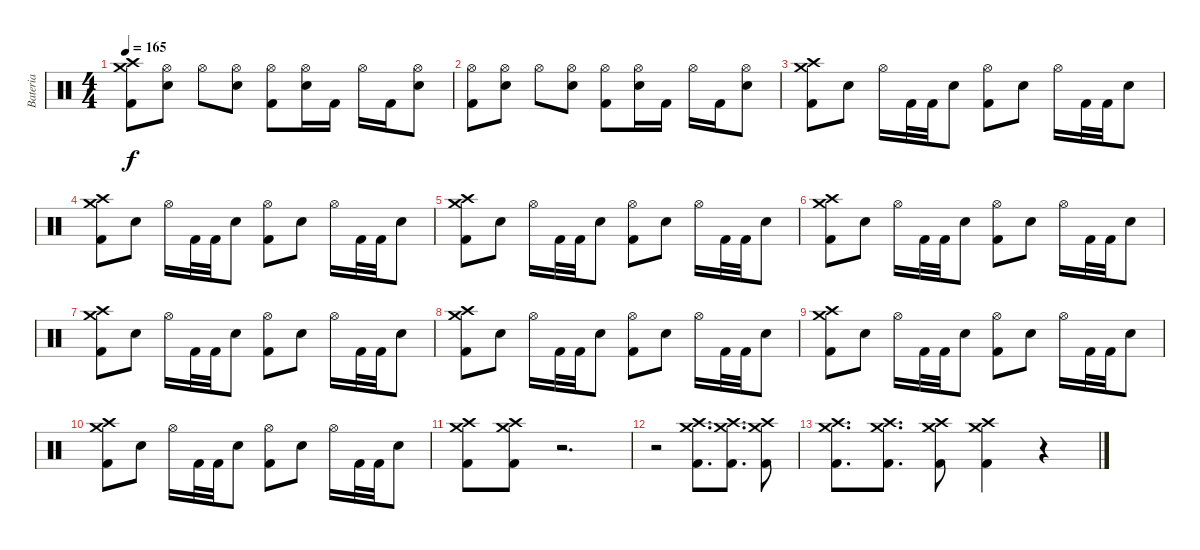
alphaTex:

\track ("Bateria" "Bateria") {instrument percussion}
\staff {score}
\articulation defaults
\ts (4 4)
\tempo 165
\clef neutral
\ks c
("Kick (hit) 2" "Crash medium (hit)" "Crash high (hit)").8{dy f} ("Hi-Hat (open)" "Electric Snare (hit)").8 "Hi-Hat (open)".8 ("Hi-Hat (open)" "Electric Snare (hit)").8 ("Kick (hit) 2" "Hi-Hat (open)").8 ("Hi-Hat (open)" "Electric Snare (hit)").16 "Kick (hit) 2".16 "Hi-Hat (open)".16 "Kick (hit) 2".16 ("Hi-Hat (open)" "Electric Snare (hit)").8 |
("Kick (hit) 2" "Hi-Hat (open)").8 ("Hi-Hat (open)" "Electric Snare (hit)").8 "Hi-Hat (open)".8 ("Hi-Hat (open)" "Electric Snare (hit)").8 ("Kick (hit) 2" "Hi-Hat (open)").8 ("Hi-Hat (open)" "Electric Snare (hit)").16 "Kick (hit) 2".16 "Hi-Hat (open)".16 "Kick (hit) 2".16 ("Hi-Hat (open)" "Electric Snare (hit)").8 |
("Kick (hit) 2" "Crash medium (hit)" "Crash high (hit)").8 "Electric Snare (hit)".8 "Hi-Hat (open)".16 "Kick (hit) 2".32 "Kick (hit) 2".32 "Electric Snare (hit)".8 ("Kick (hit) 2" "Hi-Hat (open)").8 "Electric Snare (hit)".8 "Hi-Hat (open)".16 "Kick (hit) 2".32 "Kick (hit) 2".32 "Electric Snare (hit)".8 |
("Kick (hit) 2" "Crash medium (hit)" "Crash high (hit)").8 "Electric Snare (hit)".8 "Hi-Hat (open)".16 "Kick (hit) 2".32 "Kick (hit) 2".32 "Electric Snare (hit)".8 ("Kick (hit) 2" "Hi-Hat (open)").8 "Electric Snare (hit)".8 "Hi-Hat (open)".16 "Kick (hit) 2".32 "Kick (hit) 2".32 "Electric Snare (hit)".8 |
("Kick (hit) 2" "Crash medium (hit)" "Crash high (hit)").8 "Electric Snare (hit)".8 "Hi-Hat (open)".16 "Kick (hit) 2".32 "Kick (hit) 2".32 "Electric Snare (hit)".8 ("Kick (hit) 2" "Hi-Hat (open)").8 "Electric Snare (hit)".8 "Hi-Hat (open)".16 "Kick (hit) 2".32 "Kick (hit) 2".32 "Electric Snare (hit)".8 |
("Kick (hit) 2" "Crash medium (hit)" "Crash high (hit)").8 "Electric Snare (hit)".8 "Hi-Hat (open)".16 "Kick (hit) 2".32 "Kick (hit) 2".32 "Electric Snare (hit)".8 ("Kick (hit) 2" "Hi-Hat (open)").8 "Electric Snare (hit)".8 "Hi-Hat (open)".16 "Kick (hit) 2".32 "Kick (hit) 2".32 "Electric Snare (hit)".8 |
("Kick (hit) 2" "Crash medium (hit)" "Crash high (hit)").8 "Electric Snare (hit)".8 "Hi-Hat (open)".16 "Kick (hit) 2".32 "Kick (hit) 2".32 "Electric Snare (hit)".8 ("Kick (hit) 2" "Hi-Hat (open)").8 "Electric Snare (hit)".8 "Hi-Hat (open)".16 "Kick (hit) 2".32 "Kick (hit) 2".32 "Electric Snare (hit)".8 |
("Kick (hit) 2" "Crash medium (hit)" "Crash high (hit)").8 "Electric Snare (hit)".8 "Hi-Hat (open)".16 "Kick (hit) 2".32 "Kick (hit) 2".32 "Electric Snare (hit)".8 ("Kick (hit) 2" "Hi-Hat (open)").8 "Electric Snare (hit)".8 "Hi-Hat (open)".16 "Kick (hit) 2".32 "Kick (hit) 2".32 "Electric Snare (hit)".8 |
("Kick (hit) 2" "Crash medium (hit)" "Crash high (hit)").8 "Electric Snare (hit)".8 "Hi-Hat (open)".16 "Kick (hit) 2".32 "Kick (hit) 2".32 "Electric Snare (hit)".8 ("Kick (hit) 2" "Hi-Hat (open)").8 "Electric Snare (hit)".8 "Hi-Hat (open)".16 "Kick (hit) 2".32 "Kick (hit) 2".32 "Electric Snare (hit)".8 |
("Kick (hit) 2" "Crash medium (hit)" "Crash high (hit)").8 "Electric Snare (hit)".8 "Hi-Hat (open)".16 "Kick (hit) 2".32 "Kick (hit) 2".32 "Electric Snare (hit)".8 ("Kick (hit) 2" "Hi-Hat (open)").8 "Electric Snare (hit)".8 "Hi-Hat (open)".16 "Kick (hit) 2".32 "Kick (hit) 2".32 "Electric Snare (hit)".8 |
("Kick (hit) 2" "Crash medium (hit)" "Crash high (hit)").8 ("Kick (hit) 2" "Crash medium (hit)" "Crash high (hit)").8 r.2{d} |
r.2 ("Kick (hit) 2" "Crash medium (hit)" "Crash high (hit)").8{d} ("Kick (hit) 2" "Crash medium (hit)" "Crash high (hit)").8{d} ("Kick (hit) 2" "Crash medium (hit)" "Crash high (hit)").8 |
("Kick (hit) 2" "Crash medium (hit)" "Crash high (hit)").8{d} ("Kick (hit) 2" "Crash medium (hit)" "Crash high (hit)").8{d} ("Kick (hit) 2" "Crash medium (hit)" "Crash high (hit)").8 ("Kick (hit) 2" "Crash medium (hit)" "Crash high (hit)").4 r.4
